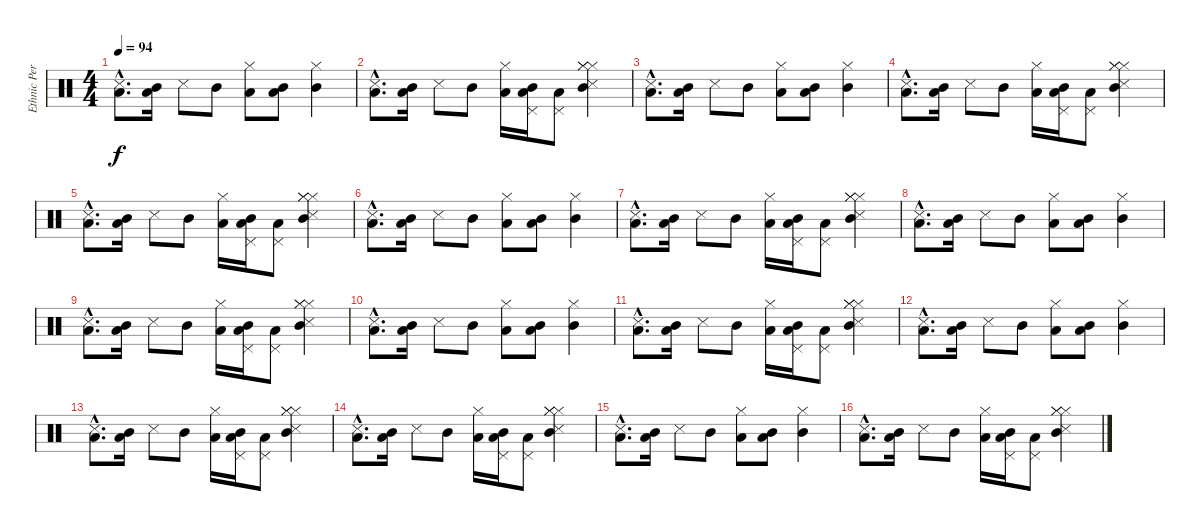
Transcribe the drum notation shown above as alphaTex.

\track ("Ethnic Percussion" "Ethnic Per") {instrument percussion}
\staff {score}
\articulation defaults
\ts (4 4)
\tempo 94
\clef neutral
\ks c
("Low Tom (hit)"{hac} "Snare (side stick) 3"{hac}).8{d dy f} ("Low Tom (hit)" "Mid Tom (hit)").16 "Snare (side stick) 3".8 "Mid Tom (hit)".8 ("Low Tom (hit)" "Hi-Hat (closed)").8 ("Low Tom (hit)" "Mid Tom (hit)").8 ("Mid Tom (hit)" "Hi-Hat (closed)").4 |
("Low Tom (hit)"{hac} "Snare (side stick) 3"{hac}).8{d} ("Low Tom (hit)" "Mid Tom (hit)").16 "Snare (side stick) 3".8 "Mid Tom (hit)".8 ("Low Tom (hit)" "Hi-Hat (closed)").16 ("Low Tom (hit)" "Pedal Hi-Hat (hit)" "Mid Tom (hit)").16 ("Low Tom (hit)" "Pedal Hi-Hat (hit)").8 ("Snare (side stick) 3" "Mid Tom (hit)" "Hi-Hat (closed)" "Hi-Hat (closed)" "Hi-Hat (closed)").4 |
("Low Tom (hit)"{hac} "Snare (side stick) 3"{hac}).8{d} ("Low Tom (hit)" "Mid Tom (hit)").16 "Snare (side stick) 3".8 "Mid Tom (hit)".8 ("Low Tom (hit)" "Hi-Hat (closed)").8 ("Low Tom (hit)" "Mid Tom (hit)").8 ("Mid Tom (hit)" "Hi-Hat (closed)").4 |
("Low Tom (hit)"{hac} "Snare (side stick) 3"{hac}).8{d} ("Low Tom (hit)" "Mid Tom (hit)").16 "Snare (side stick) 3".8 "Mid Tom (hit)".8 ("Low Tom (hit)" "Hi-Hat (closed)").16 ("Low Tom (hit)" "Pedal Hi-Hat (hit)" "Mid Tom (hit)").16 ("Low Tom (hit)" "Pedal Hi-Hat (hit)").8 ("Snare (side stick) 3" "Mid Tom (hit)" "Hi-Hat (closed)" "Hi-Hat (closed)" "Hi-Hat (closed)").4 |
("Low Tom (hit)"{hac} "Snare (side stick) 3"{hac}).8{d} ("Low Tom (hit)" "Mid Tom (hit)").16 "Snare (side stick) 3".8 "Mid Tom (hit)".8 ("Low Tom (hit)" "Hi-Hat (closed)").16 ("Low Tom (hit)" "Pedal Hi-Hat (hit)" "Mid Tom (hit)").16 ("Low Tom (hit)" "Pedal Hi-Hat (hit)").8 ("Snare (side stick) 3" "Mid Tom (hit)" "Hi-Hat (closed)" "Hi-Hat (closed)" "Hi-Hat (closed)").4 |
("Low Tom (hit)"{hac} "Snare (side stick) 3"{hac}).8{d} ("Low Tom (hit)" "Mid Tom (hit)").16 "Snare (side stick) 3".8 "Mid Tom (hit)".8 ("Low Tom (hit)" "Hi-Hat (closed)").8 ("Low Tom (hit)" "Mid Tom (hit)").8 ("Mid Tom (hit)" "Hi-Hat (closed)").4 |
("Low Tom (hit)"{hac} "Snare (side stick) 3"{hac}).8{d} ("Low Tom (hit)" "Mid Tom (hit)").16 "Snare (side stick) 3".8 "Mid Tom (hit)".8 ("Low Tom (hit)" "Hi-Hat (closed)").16 ("Low Tom (hit)" "Pedal Hi-Hat (hit)" "Mid Tom (hit)").16 ("Low Tom (hit)" "Pedal Hi-Hat (hit)").8 ("Snare (side stick) 3" "Mid Tom (hit)" "Hi-Hat (closed)" "Hi-Hat (closed)" "Hi-Hat (closed)").4 |
("Low Tom (hit)"{hac} "Snare (side stick) 3"{hac}).8{d} ("Low Tom (hit)" "Mid Tom (hit)").16 "Snare (side stick) 3".8 "Mid Tom (hit)".8 ("Low Tom (hit)" "Hi-Hat (closed)").8 ("Low Tom (hit)" "Mid Tom (hit)").8 ("Mid Tom (hit)" "Hi-Hat (closed)").4 |
("Low Tom (hit)"{hac} "Snare (side stick) 3"{hac}).8{d} ("Low Tom (hit)" "Mid Tom (hit)").16 "Snare (side stick) 3".8 "Mid Tom (hit)".8 ("Low Tom (hit)" "Hi-Hat (closed)").16 ("Low Tom (hit)" "Pedal Hi-Hat (hit)" "Mid Tom (hit)").16 ("Low Tom (hit)" "Pedal Hi-Hat (hit)").8 ("Snare (side stick) 3" "Mid Tom (hit)" "Hi-Hat (closed)" "Hi-Hat (closed)" "Hi-Hat (closed)").4 |
("Low Tom (hit)"{hac} "Snare (side stick) 3"{hac}).8{d} ("Low Tom (hit)" "Mid Tom (hit)").16 "Snare (side stick) 3".8 "Mid Tom (hit)".8 ("Low Tom (hit)" "Hi-Hat (closed)").8 ("Low Tom (hit)" "Mid Tom (hit)").8 ("Mid Tom (hit)" "Hi-Hat (closed)").4 |
("Low Tom (hit)"{hac} "Snare (side stick) 3"{hac}).8{d} ("Low Tom (hit)" "Mid Tom (hit)").16 "Snare (side stick) 3".8 "Mid Tom (hit)".8 ("Low Tom (hit)" "Hi-Hat (closed)").16 ("Low Tom (hit)" "Pedal Hi-Hat (hit)" "Mid Tom (hit)").16 ("Low Tom (hit)" "Pedal Hi-Hat (hit)").8 ("Snare (side stick) 3" "Mid Tom (hit)" "Hi-Hat (closed)" "Hi-Hat (closed)" "Hi-Hat (closed)").4 |
("Low Tom (hit)"{hac} "Snare (side stick) 3"{hac}).8{d} ("Low Tom (hit)" "Mid Tom (hit)").16 "Snare (side stick) 3".8 "Mid Tom (hit)".8 ("Low Tom (hit)" "Hi-Hat (closed)").8 ("Low Tom (hit)" "Mid Tom (hit)").8 ("Mid Tom (hit)" "Hi-Hat (closed)").4 |
("Low Tom (hit)"{hac} "Snare (side stick) 3"{hac}).8{d} ("Low Tom (hit)" "Mid Tom (hit)").16 "Snare (side stick) 3".8 "Mid Tom (hit)".8 ("Low Tom (hit)" "Hi-Hat (closed)").16 ("Low Tom (hit)" "Pedal Hi-Hat (hit)" "Mid Tom (hit)").16 ("Low Tom (hit)" "Pedal Hi-Hat (hit)").8 ("Snare (side stick) 3" "Mid Tom (hit)" "Hi-Hat (closed)" "Hi-Hat (closed)" "Hi-Hat (closed)").4 |
("Low Tom (hit)"{hac} "Snare (side stick) 3"{hac}).8{d} ("Low Tom (hit)" "Mid Tom (hit)").16 "Snare (side stick) 3".8 "Mid Tom (hit)".8 ("Low Tom (hit)" "Hi-Hat (closed)").16 ("Low Tom (hit)" "Pedal Hi-Hat (hit)" "Mid Tom (hit)").16 ("Low Tom (hit)" "Pedal Hi-Hat (hit)").8 ("Snare (side stick) 3" "Mid Tom (hit)" "Hi-Hat (closed)" "Hi-Hat (closed)" "Hi-Hat (closed)").4 |
("Low Tom (hit)"{hac} "Snare (side stick) 3"{hac}).8{d} ("Low Tom (hit)" "Mid Tom (hit)").16 "Snare (side stick) 3".8 "Mid Tom (hit)".8 ("Low Tom (hit)" "Hi-Hat (closed)").8 ("Low Tom (hit)" "Mid Tom (hit)").8 ("Mid Tom (hit)" "Hi-Hat (closed)").4 |
("Low Tom (hit)"{hac} "Snare (side stick) 3"{hac}).8{d} ("Low Tom (hit)" "Mid Tom (hit)").16 "Snare (side stick) 3".8 "Mid Tom (hit)".8 ("Low Tom (hit)" "Hi-Hat (closed)").16 ("Low Tom (hit)" "Pedal Hi-Hat (hit)" "Mid Tom (hit)").16 ("Low Tom (hit)" "Pedal Hi-Hat (hit)").8 ("Snare (side stick) 3" "Mid Tom (hit)" "Hi-Hat (closed)" "Hi-Hat (closed)" "Hi-Hat (closed)").4
